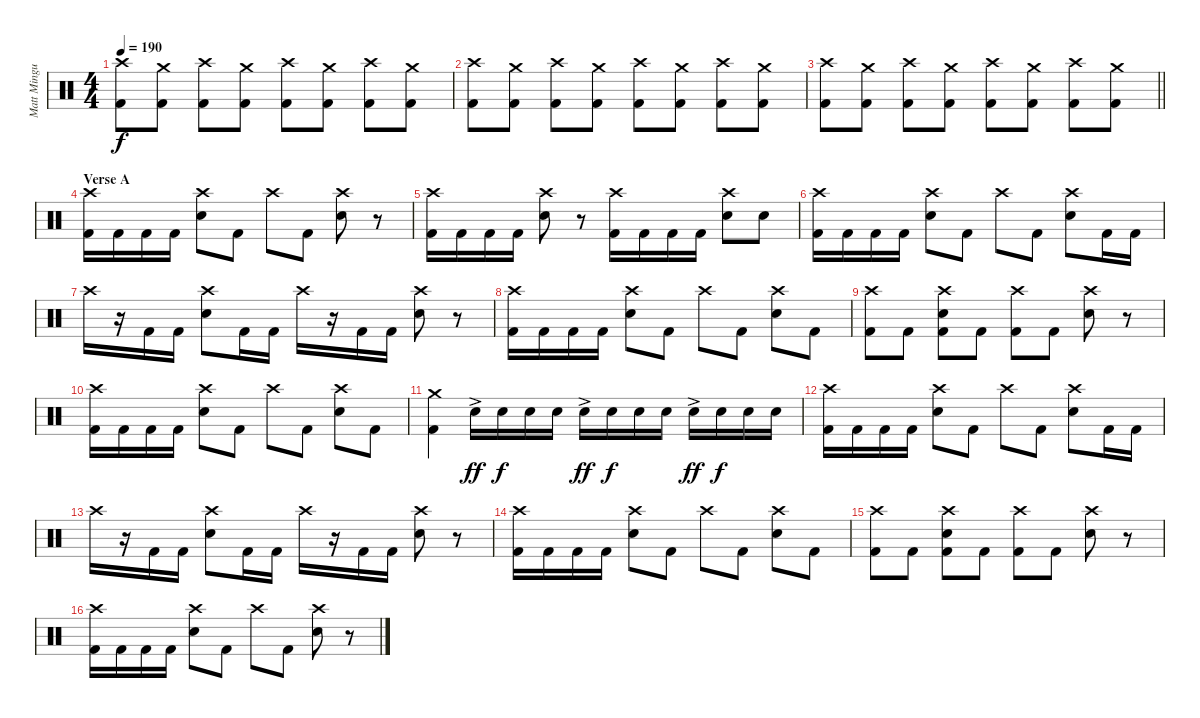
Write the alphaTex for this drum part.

\track ("Matt Mingus (Drums)" "Matt Mingu") {instrument percussion}
\staff {score}
\articulation defaults
\ts (4 4)
\tempo 190
\clef neutral
\ks c
("Crash high (hit)" "Kick (hit) 2").8{dy f} ("Crash medium (hit)" "Kick (hit) 2").8 ("Crash high (hit)" "Kick (hit) 2").8 ("Crash medium (hit)" "Kick (hit) 2").8 ("Crash high (hit)" "Kick (hit) 2").8 ("Crash medium (hit)" "Kick (hit) 2").8 ("Crash high (hit)" "Kick (hit) 2").8 ("Crash medium (hit)" "Kick (hit) 2").8 |
("Crash high (hit)" "Kick (hit) 2").8 ("Crash medium (hit)" "Kick (hit) 2").8 ("Crash high (hit)" "Kick (hit) 2").8 ("Crash medium (hit)" "Kick (hit) 2").8 ("Crash high (hit)" "Kick (hit) 2").8 ("Crash medium (hit)" "Kick (hit) 2").8 ("Crash high (hit)" "Kick (hit) 2").8 ("Crash medium (hit)" "Kick (hit) 2").8 |
\barLineRight lightlight
("Crash high (hit)" "Kick (hit) 2").8 ("Crash medium (hit)" "Kick (hit) 2").8 ("Crash high (hit)" "Kick (hit) 2").8 ("Crash medium (hit)" "Kick (hit) 2").8 ("Crash high (hit)" "Kick (hit) 2").8 ("Crash medium (hit)" "Kick (hit) 2").8 ("Crash high (hit)" "Kick (hit) 2").8 ("Crash medium (hit)" "Kick (hit) 2").8 |
\section ("" "Verse A")
("Crash high (hit)" "Kick (hit) 2").16 "Kick (hit) 2".16 "Kick (hit) 2".16 "Kick (hit) 2".16 ("Crash high (hit)" "Electric Snare (hit)").8 "Kick (hit) 2".8 "Crash high (hit)".8 "Kick (hit) 2".8 ("Crash high (hit)" "Electric Snare (hit)").8 r.8 |
("Crash high (hit)" "Kick (hit) 2").16 "Kick (hit) 2".16 "Kick (hit) 2".16 "Kick (hit) 2".16 ("Crash high (hit)" "Electric Snare (hit)").8 r.8 ("Crash high (hit)" "Kick (hit) 2").16 "Kick (hit) 2".16 "Kick (hit) 2".16 "Kick (hit) 2".16 ("Crash high (hit)" "Electric Snare (hit)").8 "Electric Snare (hit)".8 |
("Crash high (hit)" "Kick (hit) 2").16 "Kick (hit) 2".16 "Kick (hit) 2".16 "Kick (hit) 2".16 ("Crash high (hit)" "Electric Snare (hit)").8 "Kick (hit) 2".8 "Crash high (hit)".8 "Kick (hit) 2".8 ("Crash high (hit)" "Electric Snare (hit)").8 "Kick (hit) 2".16 "Kick (hit) 2".16 |
"Crash high (hit)".16 r.16 "Kick (hit) 2".16 "Kick (hit) 2".16 ("Crash high (hit)" "Electric Snare (hit)").8 "Kick (hit) 2".16 "Kick (hit) 2".16 "Crash high (hit)".16 r.16 "Kick (hit) 2".16 "Kick (hit) 2".16 ("Crash high (hit)" "Electric Snare (hit)").8 r.8 |
("Crash high (hit)" "Kick (hit) 2").16 "Kick (hit) 2".16 "Kick (hit) 2".16 "Kick (hit) 2".16 ("Crash high (hit)" "Electric Snare (hit)").8 "Kick (hit) 2".8 "Crash high (hit)".8 "Kick (hit) 2".8 ("Crash high (hit)" "Electric Snare (hit)").8 "Kick (hit) 2".8 |
("Crash high (hit)" "Kick (hit) 2").8 "Kick (hit) 2".8 ("Crash high (hit)" "Electric Snare (hit)" "Kick (hit) 2").8 "Kick (hit) 2".8 ("Crash high (hit)" "Kick (hit) 2").8 "Kick (hit) 2".8 ("Crash high (hit)" "Electric Snare (hit)").8 r.8 |
("Crash high (hit)" "Kick (hit) 2").16 "Kick (hit) 2".16 "Kick (hit) 2".16 "Kick (hit) 2".16 ("Crash high (hit)" "Electric Snare (hit)").8 "Kick (hit) 2".8 "Crash high (hit)".8 "Kick (hit) 2".8 ("Crash high (hit)" "Electric Snare (hit)").8 "Kick (hit) 2".8 |
("Crash medium (hit)" "Kick (hit) 2").4 "Electric Snare (hit)"{ac}.16{dy ff} "Electric Snare (hit)".16{dy f} "Electric Snare (hit)".16 "Electric Snare (hit)".16 "Electric Snare (hit)"{ac}.16{dy ff} "Electric Snare (hit)".16{dy f} "Electric Snare (hit)".16 "Electric Snare (hit)".16 "Electric Snare (hit)"{ac}.16{dy ff} "Electric Snare (hit)".16{dy f} "Electric Snare (hit)".16 "Electric Snare (hit)".16 |
("Crash high (hit)" "Kick (hit) 2").16 "Kick (hit) 2".16 "Kick (hit) 2".16 "Kick (hit) 2".16 ("Crash high (hit)" "Electric Snare (hit)").8 "Kick (hit) 2".8 "Crash high (hit)".8 "Kick (hit) 2".8 ("Crash high (hit)" "Electric Snare (hit)").8 "Kick (hit) 2".16 "Kick (hit) 2".16 |
"Crash high (hit)".16 r.16 "Kick (hit) 2".16 "Kick (hit) 2".16 ("Crash high (hit)" "Electric Snare (hit)").8 "Kick (hit) 2".16 "Kick (hit) 2".16 "Crash high (hit)".16 r.16 "Kick (hit) 2".16 "Kick (hit) 2".16 ("Crash high (hit)" "Electric Snare (hit)").8 r.8 |
("Crash high (hit)" "Kick (hit) 2").16 "Kick (hit) 2".16 "Kick (hit) 2".16 "Kick (hit) 2".16 ("Crash high (hit)" "Electric Snare (hit)").8 "Kick (hit) 2".8 "Crash high (hit)".8 "Kick (hit) 2".8 ("Crash high (hit)" "Electric Snare (hit)").8 "Kick (hit) 2".8 |
("Crash high (hit)" "Kick (hit) 2").8 "Kick (hit) 2".8 ("Crash high (hit)" "Electric Snare (hit)" "Kick (hit) 2").8 "Kick (hit) 2".8 ("Crash high (hit)" "Kick (hit) 2").8 "Kick (hit) 2".8 ("Crash high (hit)" "Electric Snare (hit)").8 r.8 |
("Crash high (hit)" "Kick (hit) 2").16 "Kick (hit) 2".16 "Kick (hit) 2".16 "Kick (hit) 2".16 ("Crash high (hit)" "Electric Snare (hit)").8 "Kick (hit) 2".8 "Crash high (hit)".8 "Kick (hit) 2".8 ("Crash high (hit)" "Electric Snare (hit)").8 r.8
